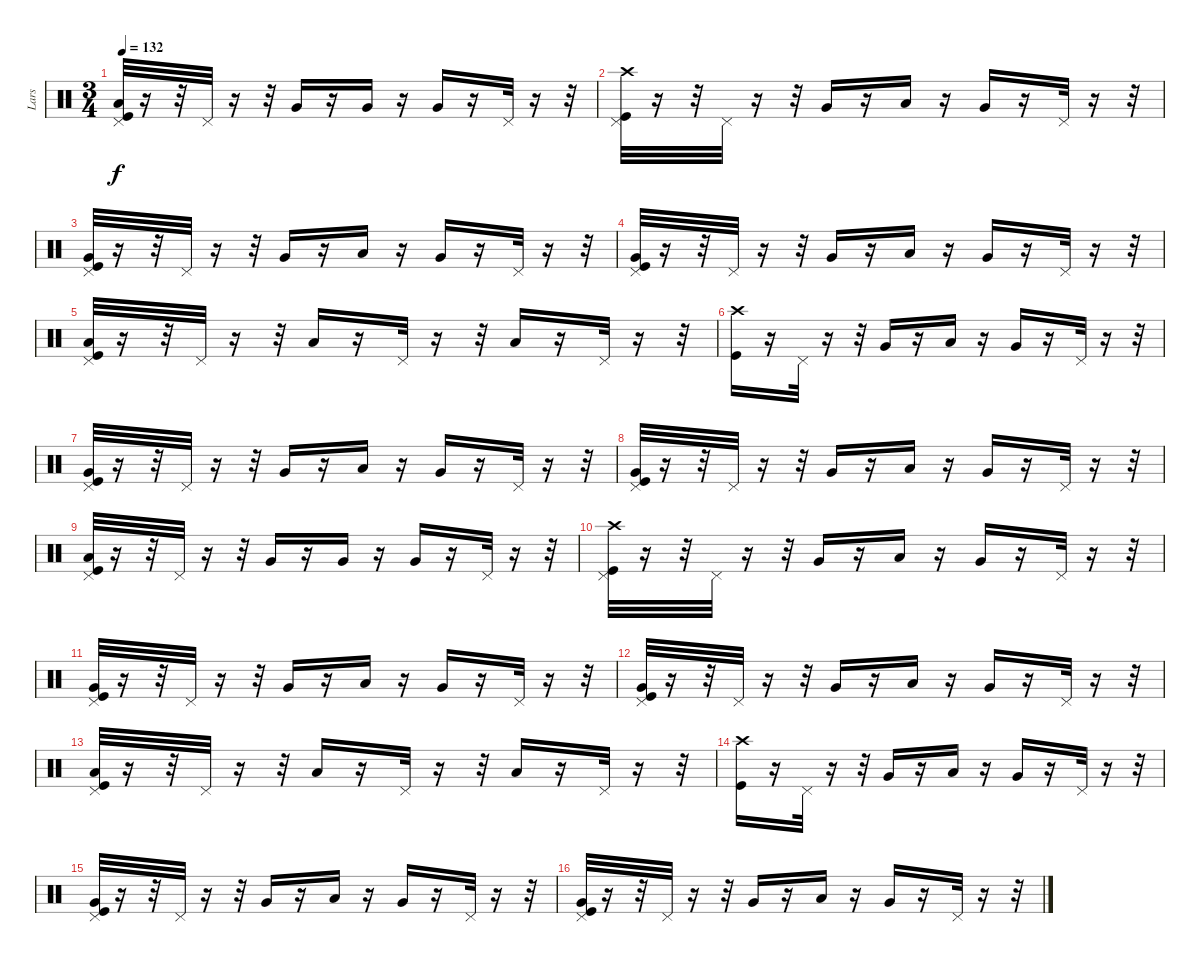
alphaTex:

\track ("Lars" "Lars") {instrument percussion}
\staff {score}
\articulation defaults
\ts (3 4)
\tempo 132
\clef neutral
\ks c
("Kick (hit)" "Low Tom (hit)" "Pedal Hi-Hat (hit)").32{dy f} r.16 r.32 "Pedal Hi-Hat (hit)".32 r.16 r.32 "Very Low Tom (hit)".16 r.16 "Very Low Tom (hit)".16 r.16 "Very Low Tom (hit)".16 r.16 "Pedal Hi-Hat (hit)".32 r.16 r.32 |
("Kick (hit)" "Crash high (hit)" "Pedal Hi-Hat (hit)").32 r.16 r.32 "Pedal Hi-Hat (hit)".32 r.16 r.32 "Very Low Tom (hit)".16 r.16 "Low Tom (hit)".16 r.16 "Very Low Tom (hit)".16 r.16 "Pedal Hi-Hat (hit)".32 r.16 r.32 |
("Kick (hit)" "Pedal Hi-Hat (hit)" "Very Low Tom (hit)").32 r.16 r.32 "Pedal Hi-Hat (hit)".32 r.16 r.32 "Very Low Tom (hit)".16 r.16 "Low Tom (hit)".16 r.16 "Very Low Tom (hit)".16 r.16 "Pedal Hi-Hat (hit)".32 r.16 r.32 |
("Kick (hit)" "Pedal Hi-Hat (hit)" "Very Low Tom (hit)").32 r.16 r.32 "Pedal Hi-Hat (hit)".32 r.16 r.32 "Very Low Tom (hit)".16 r.16 "Low Tom (hit)".16 r.16 "Very Low Tom (hit)".16 r.16 "Pedal Hi-Hat (hit)".32 r.16 r.32 |
("Kick (hit)" "Low Tom (hit)" "Pedal Hi-Hat (hit)").32 r.16 r.32 "Pedal Hi-Hat (hit)".32 r.16 r.32 "Low Floor Tom (hit)".16 r.16 "Pedal Hi-Hat (hit)".32 r.16 r.32 "Low Floor Tom (hit)".16 r.16 "Pedal Hi-Hat (hit)".32 r.16 r.32 |
("Crash high (hit)" "Kick (hit)").16 r.16 "Pedal Hi-Hat (hit)".32 r.16 r.32 "Very Low Tom (hit)".16 r.16 "Low Tom (hit)".16 r.16 "Very Low Tom (hit)".16 r.16 "Pedal Hi-Hat (hit)".32 r.16 r.32 |
("Kick (hit)" "Pedal Hi-Hat (hit)" "Very Low Tom (hit)").32 r.16 r.32 "Pedal Hi-Hat (hit)".32 r.16 r.32 "Very Low Tom (hit)".16 r.16 "Low Tom (hit)".16 r.16 "Very Low Tom (hit)".16 r.16 "Pedal Hi-Hat (hit)".32 r.16 r.32 |
("Kick (hit)" "Pedal Hi-Hat (hit)" "Very Low Tom (hit)").32 r.16 r.32 "Pedal Hi-Hat (hit)".32 r.16 r.32 "Very Low Tom (hit)".16 r.16 "Low Tom (hit)".16 r.16 "Very Low Tom (hit)".16 r.16 "Pedal Hi-Hat (hit)".32 r.16 r.32 |
("Kick (hit)" "Low Tom (hit)" "Pedal Hi-Hat (hit)").32 r.16 r.32 "Pedal Hi-Hat (hit)".32 r.16 r.32 "Very Low Tom (hit)".16 r.16 "Very Low Tom (hit)".16 r.16 "Very Low Tom (hit)".16 r.16 "Pedal Hi-Hat (hit)".32 r.16 r.32 |
("Kick (hit)" "Crash high (hit)" "Pedal Hi-Hat (hit)").32 r.16 r.32 "Pedal Hi-Hat (hit)".32 r.16 r.32 "Very Low Tom (hit)".16 r.16 "Low Tom (hit)".16 r.16 "Very Low Tom (hit)".16 r.16 "Pedal Hi-Hat (hit)".32 r.16 r.32 |
("Kick (hit)" "Pedal Hi-Hat (hit)" "Very Low Tom (hit)").32 r.16 r.32 "Pedal Hi-Hat (hit)".32 r.16 r.32 "Very Low Tom (hit)".16 r.16 "Low Tom (hit)".16 r.16 "Very Low Tom (hit)".16 r.16 "Pedal Hi-Hat (hit)".32 r.16 r.32 |
("Kick (hit)" "Pedal Hi-Hat (hit)" "Very Low Tom (hit)").32 r.16 r.32 "Pedal Hi-Hat (hit)".32 r.16 r.32 "Very Low Tom (hit)".16 r.16 "Low Tom (hit)".16 r.16 "Very Low Tom (hit)".16 r.16 "Pedal Hi-Hat (hit)".32 r.16 r.32 |
("Kick (hit)" "Low Tom (hit)" "Pedal Hi-Hat (hit)").32 r.16 r.32 "Pedal Hi-Hat (hit)".32 r.16 r.32 "Low Floor Tom (hit)".16 r.16 "Pedal Hi-Hat (hit)".32 r.16 r.32 "Low Floor Tom (hit)".16 r.16 "Pedal Hi-Hat (hit)".32 r.16 r.32 |
("Crash high (hit)" "Kick (hit)").16 r.16 "Pedal Hi-Hat (hit)".32 r.16 r.32 "Very Low Tom (hit)".16 r.16 "Low Tom (hit)".16 r.16 "Very Low Tom (hit)".16 r.16 "Pedal Hi-Hat (hit)".32 r.16 r.32 |
("Kick (hit)" "Pedal Hi-Hat (hit)" "Very Low Tom (hit)").32 r.16 r.32 "Pedal Hi-Hat (hit)".32 r.16 r.32 "Very Low Tom (hit)".16 r.16 "Low Tom (hit)".16 r.16 "Very Low Tom (hit)".16 r.16 "Pedal Hi-Hat (hit)".32 r.16 r.32 |
("Kick (hit)" "Pedal Hi-Hat (hit)" "Very Low Tom (hit)").32 r.16 r.32 "Pedal Hi-Hat (hit)".32 r.16 r.32 "Very Low Tom (hit)".16 r.16 "Low Tom (hit)".16 r.16 "Very Low Tom (hit)".16 r.16 "Pedal Hi-Hat (hit)".32 r.16 r.32
